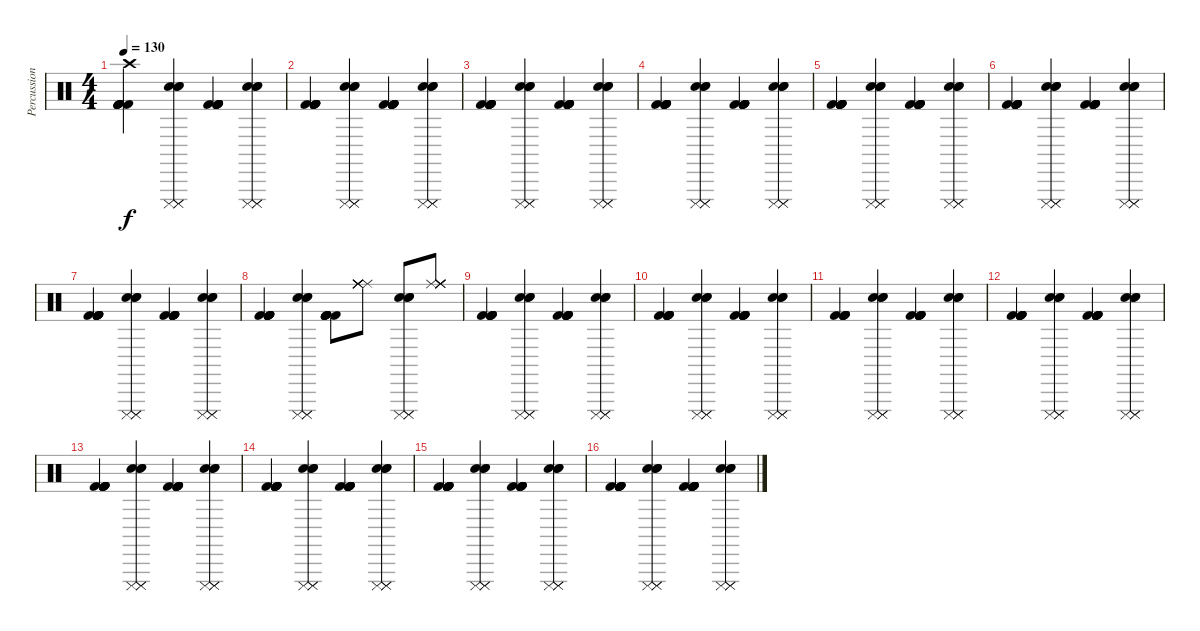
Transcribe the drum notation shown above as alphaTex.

\track ("Percussion" "Percussion") {instrument percussion}
\staff {score}
\articulation defaults
\ts (4 4)
\tempo 130
\clef neutral
\ks c
("Crash high (hit)" "Kick (hit) 2" "Kick (hit) 2" "Kick (hit) 2" "Kick (hit) 2" "Kick (hit) 2").4{dy f volume 15} ("Electric Snare (hit)" "Cuica (mute)" "Electric Snare (hit)" "Cuica (mute)" "Electric Snare (hit)" "Cuica (mute)").4 ("Kick (hit) 2" "Kick (hit) 2" "Kick (hit) 2" "Kick (hit) 2" "Kick (hit) 2" "Kick (hit) 2").4 ("Electric Snare (hit)" "Cuica (mute)" "Electric Snare (hit)" "Cuica (mute)" "Electric Snare (hit)" "Cuica (mute)").4 |
("Kick (hit) 2" "Kick (hit) 2" "Kick (hit) 2" "Kick (hit) 2" "Kick (hit) 2" "Kick (hit) 2").4 ("Electric Snare (hit)" "Cuica (mute)" "Electric Snare (hit)" "Cuica (mute)" "Electric Snare (hit)" "Cuica (mute)").4 ("Kick (hit) 2" "Kick (hit) 2" "Kick (hit) 2" "Kick (hit) 2" "Kick (hit) 2" "Kick (hit) 2").4 ("Electric Snare (hit)" "Cuica (mute)" "Electric Snare (hit)" "Cuica (mute)" "Electric Snare (hit)" "Cuica (mute)").4 |
("Kick (hit) 2" "Kick (hit) 2" "Kick (hit) 2" "Kick (hit) 2" "Kick (hit) 2" "Kick (hit) 2").4 ("Electric Snare (hit)" "Cuica (mute)" "Electric Snare (hit)" "Cuica (mute)" "Electric Snare (hit)" "Cuica (mute)").4 ("Kick (hit) 2" "Kick (hit) 2" "Kick (hit) 2" "Kick (hit) 2" "Kick (hit) 2" "Kick (hit) 2").4 ("Electric Snare (hit)" "Cuica (mute)" "Electric Snare (hit)" "Cuica (mute)" "Electric Snare (hit)" "Cuica (mute)").4 |
("Kick (hit) 2" "Kick (hit) 2" "Kick (hit) 2" "Kick (hit) 2" "Kick (hit) 2" "Kick (hit) 2").4 ("Electric Snare (hit)" "Cuica (mute)" "Electric Snare (hit)" "Cuica (mute)" "Electric Snare (hit)" "Cuica (mute)").4 ("Kick (hit) 2" "Kick (hit) 2" "Kick (hit) 2" "Kick (hit) 2" "Kick (hit) 2" "Kick (hit) 2").4 ("Electric Snare (hit)" "Cuica (mute)" "Electric Snare (hit)" "Cuica (mute)" "Electric Snare (hit)" "Cuica (mute)").4 |
("Kick (hit) 2" "Kick (hit) 2" "Kick (hit) 2" "Kick (hit) 2" "Kick (hit) 2" "Kick (hit) 2").4 ("Electric Snare (hit)" "Cuica (mute)" "Electric Snare (hit)" "Cuica (mute)" "Electric Snare (hit)" "Cuica (mute)").4 ("Kick (hit) 2" "Kick (hit) 2" "Kick (hit) 2" "Kick (hit) 2" "Kick (hit) 2" "Kick (hit) 2").4 ("Electric Snare (hit)" "Cuica (mute)" "Electric Snare (hit)" "Cuica (mute)" "Electric Snare (hit)" "Cuica (mute)").4 |
("Kick (hit) 2" "Kick (hit) 2" "Kick (hit) 2" "Kick (hit) 2" "Kick (hit) 2" "Kick (hit) 2").4 ("Electric Snare (hit)" "Cuica (mute)" "Electric Snare (hit)" "Cuica (mute)" "Electric Snare (hit)" "Cuica (mute)").4 ("Kick (hit) 2" "Kick (hit) 2" "Kick (hit) 2" "Kick (hit) 2" "Kick (hit) 2" "Kick (hit) 2").4 ("Electric Snare (hit)" "Cuica (mute)" "Electric Snare (hit)" "Cuica (mute)" "Electric Snare (hit)" "Cuica (mute)").4 |
("Kick (hit) 2" "Kick (hit) 2" "Kick (hit) 2" "Kick (hit) 2" "Kick (hit) 2" "Kick (hit) 2").4 ("Electric Snare (hit)" "Cuica (mute)" "Electric Snare (hit)" "Cuica (mute)" "Electric Snare (hit)" "Cuica (mute)").4 ("Kick (hit) 2" "Kick (hit) 2" "Kick (hit) 2" "Kick (hit) 2" "Kick (hit) 2" "Kick (hit) 2").4 ("Electric Snare (hit)" "Cuica (mute)" "Electric Snare (hit)" "Cuica (mute)" "Electric Snare (hit)" "Cuica (mute)").4 |
("Kick (hit) 2" "Kick (hit) 2" "Kick (hit) 2" "Kick (hit) 2" "Kick (hit) 2" "Kick (hit) 2").4 ("Electric Snare (hit)" "Cuica (mute)" "Electric Snare (hit)" "Cuica (mute)" "Electric Snare (hit)" "Cuica (mute)").4 ("Kick (hit) 2" "Kick (hit) 2" "Kick (hit) 2" "Kick (hit) 2" "Kick (hit) 2" "Kick (hit) 2").8 ("Ride (middle)" "Ride (middle)" "Ride (middle)" "Ride (middle)" "Ride (middle)" "Ride (middle)").8 ("Electric Snare (hit)" "Cuica (mute)" "Electric Snare (hit)" "Cuica (mute)" "Electric Snare (hit)" "Cuica (mute)").8 ("Ride (middle)" "Ride (middle)" "Ride (middle)" "Ride (middle)" "Ride (middle)" "Ride (middle)").8 |
("Kick (hit) 2" "Kick (hit) 2" "Kick (hit) 2" "Kick (hit) 2" "Kick (hit) 2" "Kick (hit) 2").4 ("Electric Snare (hit)" "Cuica (mute)" "Electric Snare (hit)" "Cuica (mute)" "Electric Snare (hit)" "Cuica (mute)").4 ("Kick (hit) 2" "Kick (hit) 2" "Kick (hit) 2" "Kick (hit) 2" "Kick (hit) 2" "Kick (hit) 2").4 ("Electric Snare (hit)" "Cuica (mute)" "Electric Snare (hit)" "Cuica (mute)" "Electric Snare (hit)" "Cuica (mute)").4 |
("Kick (hit) 2" "Kick (hit) 2" "Kick (hit) 2" "Kick (hit) 2" "Kick (hit) 2" "Kick (hit) 2").4 ("Electric Snare (hit)" "Cuica (mute)" "Electric Snare (hit)" "Cuica (mute)" "Electric Snare (hit)" "Cuica (mute)").4 ("Kick (hit) 2" "Kick (hit) 2" "Kick (hit) 2" "Kick (hit) 2" "Kick (hit) 2" "Kick (hit) 2").4 ("Electric Snare (hit)" "Cuica (mute)" "Electric Snare (hit)" "Cuica (mute)" "Electric Snare (hit)" "Cuica (mute)").4 |
("Kick (hit) 2" "Kick (hit) 2" "Kick (hit) 2" "Kick (hit) 2" "Kick (hit) 2" "Kick (hit) 2").4 ("Electric Snare (hit)" "Cuica (mute)" "Electric Snare (hit)" "Cuica (mute)" "Electric Snare (hit)" "Cuica (mute)").4 ("Kick (hit) 2" "Kick (hit) 2" "Kick (hit) 2" "Kick (hit) 2" "Kick (hit) 2" "Kick (hit) 2").4 ("Electric Snare (hit)" "Cuica (mute)" "Electric Snare (hit)" "Cuica (mute)" "Electric Snare (hit)" "Cuica (mute)").4 |
("Kick (hit) 2" "Kick (hit) 2" "Kick (hit) 2" "Kick (hit) 2" "Kick (hit) 2" "Kick (hit) 2").4 ("Electric Snare (hit)" "Cuica (mute)" "Electric Snare (hit)" "Cuica (mute)" "Electric Snare (hit)" "Cuica (mute)").4 ("Kick (hit) 2" "Kick (hit) 2" "Kick (hit) 2" "Kick (hit) 2" "Kick (hit) 2" "Kick (hit) 2").4 ("Electric Snare (hit)" "Cuica (mute)" "Electric Snare (hit)" "Cuica (mute)" "Electric Snare (hit)" "Cuica (mute)").4 |
("Kick (hit) 2" "Kick (hit) 2" "Kick (hit) 2" "Kick (hit) 2" "Kick (hit) 2" "Kick (hit) 2").4 ("Electric Snare (hit)" "Cuica (mute)" "Electric Snare (hit)" "Cuica (mute)" "Electric Snare (hit)" "Cuica (mute)").4 ("Kick (hit) 2" "Kick (hit) 2" "Kick (hit) 2" "Kick (hit) 2" "Kick (hit) 2" "Kick (hit) 2").4 ("Electric Snare (hit)" "Cuica (mute)" "Electric Snare (hit)" "Cuica (mute)" "Electric Snare (hit)" "Cuica (mute)").4 |
("Kick (hit) 2" "Kick (hit) 2" "Kick (hit) 2" "Kick (hit) 2" "Kick (hit) 2" "Kick (hit) 2").4 ("Electric Snare (hit)" "Cuica (mute)" "Electric Snare (hit)" "Cuica (mute)" "Electric Snare (hit)" "Cuica (mute)").4 ("Kick (hit) 2" "Kick (hit) 2" "Kick (hit) 2" "Kick (hit) 2" "Kick (hit) 2" "Kick (hit) 2").4 ("Electric Snare (hit)" "Cuica (mute)" "Electric Snare (hit)" "Cuica (mute)" "Electric Snare (hit)" "Cuica (mute)").4 |
("Kick (hit) 2" "Kick (hit) 2" "Kick (hit) 2" "Kick (hit) 2" "Kick (hit) 2" "Kick (hit) 2").4 ("Electric Snare (hit)" "Cuica (mute)" "Electric Snare (hit)" "Cuica (mute)" "Electric Snare (hit)" "Cuica (mute)").4 ("Kick (hit) 2" "Kick (hit) 2" "Kick (hit) 2" "Kick (hit) 2" "Kick (hit) 2" "Kick (hit) 2").4 ("Electric Snare (hit)" "Cuica (mute)" "Electric Snare (hit)" "Cuica (mute)" "Electric Snare (hit)" "Cuica (mute)").4 |
("Kick (hit) 2" "Kick (hit) 2" "Kick (hit) 2" "Kick (hit) 2" "Kick (hit) 2" "Kick (hit) 2").4 ("Electric Snare (hit)" "Cuica (mute)" "Electric Snare (hit)" "Cuica (mute)" "Electric Snare (hit)" "Cuica (mute)").4 ("Kick (hit) 2" "Kick (hit) 2" "Kick (hit) 2" "Kick (hit) 2" "Kick (hit) 2" "Kick (hit) 2").4 ("Electric Snare (hit)" "Cuica (mute)" "Electric Snare (hit)" "Cuica (mute)" "Electric Snare (hit)" "Cuica (mute)").4
